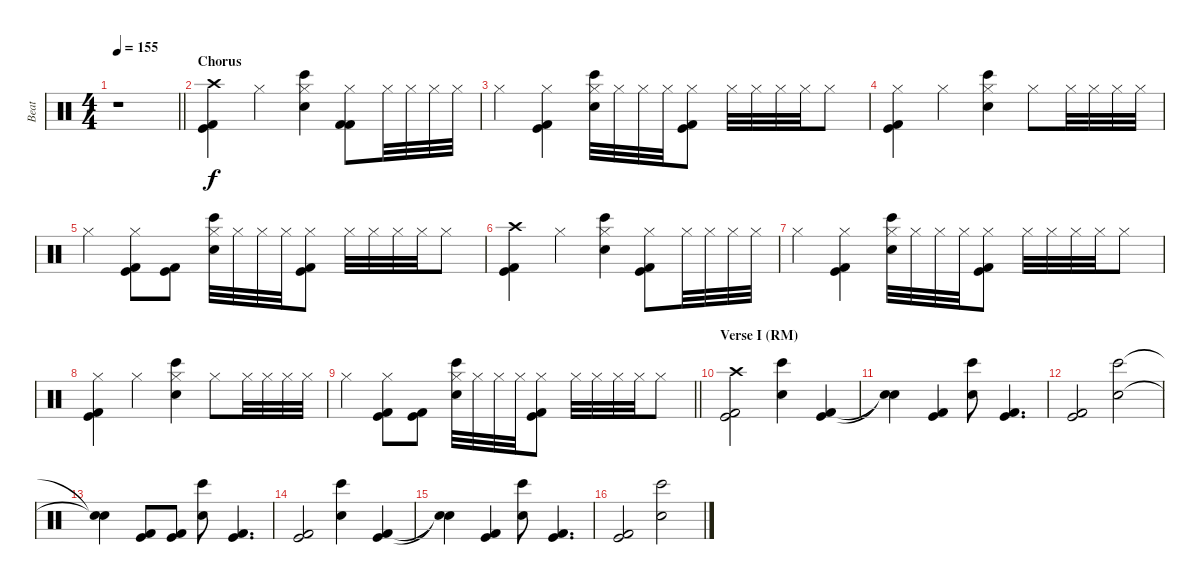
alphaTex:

\track ("Beat" "Beat") {instrument percussion}
\staff {score}
\articulation defaults
\ts (4 4)
\tempo 155
\clef neutral
\barLineRight lightlight
\ks c
r.1{dy f} |
\section ("" "Chorus")
("Crash high (hit)" "Kick (hit)" "Kick (hit) 2").4 "Hi-Hat (closed)".4 ("Hi-Hat (closed)" "Hand Clap (hit)" "Bongo High (hit)").4 ("Hi-Hat (closed)" "Kick (hit) 2" "Kick (hit) 2").8 "Hi-Hat (closed)".32 "Hi-Hat (closed)".32 "Hi-Hat (closed)".32 "Hi-Hat (closed)".32 |
"Hi-Hat (closed)".4 ("Hi-Hat (closed)" "Kick (hit)" "Kick (hit) 2").4 ("Hi-Hat (closed)" "Hand Clap (hit)" "Bongo High (hit)").32 "Hi-Hat (closed)".32 "Hi-Hat (closed)".32 "Hi-Hat (closed)".32 ("Hi-Hat (closed)" "Kick (hit)" "Kick (hit) 2").8 "Hi-Hat (closed)".32 "Hi-Hat (closed)".32 "Hi-Hat (closed)".32 "Hi-Hat (closed)".32 "Hi-Hat (closed)".8 |
("Hi-Hat (closed)" "Kick (hit)" "Kick (hit) 2").4 "Hi-Hat (closed)".4 ("Hi-Hat (closed)" "Hand Clap (hit)" "Bongo High (hit)").4 "Hi-Hat (closed)".8 "Hi-Hat (closed)".32 "Hi-Hat (closed)".32 "Hi-Hat (closed)".32 "Hi-Hat (closed)".32 |
"Hi-Hat (closed)".4 ("Hi-Hat (closed)" "Kick (hit)" "Kick (hit) 2").8 ("Kick (hit)" "Kick (hit) 2").8 ("Hi-Hat (closed)" "Hand Clap (hit)" "Bongo High (hit)").32 "Hi-Hat (closed)".32 "Hi-Hat (closed)".32 "Hi-Hat (closed)".32 ("Hi-Hat (closed)" "Kick (hit)" "Kick (hit) 2").8 "Hi-Hat (closed)".32 "Hi-Hat (closed)".32 "Hi-Hat (closed)".32 "Hi-Hat (closed)".32 "Hi-Hat (closed)".8 |
("Crash high (hit)" "Kick (hit)" "Kick (hit) 2").4 "Hi-Hat (closed)".4 ("Hi-Hat (closed)" "Hand Clap (hit)" "Bongo High (hit)").4 ("Hi-Hat (closed)" "Kick (hit)" "Kick (hit) 2").8 "Hi-Hat (closed)".32 "Hi-Hat (closed)".32 "Hi-Hat (closed)".32 "Hi-Hat (closed)".32 |
"Hi-Hat (closed)".4 ("Hi-Hat (closed)" "Kick (hit)" "Kick (hit) 2").4 ("Hi-Hat (closed)" "Hand Clap (hit)" "Bongo High (hit)").32 "Hi-Hat (closed)".32 "Hi-Hat (closed)".32 "Hi-Hat (closed)".32 ("Hi-Hat (closed)" "Kick (hit)" "Kick (hit) 2").8 "Hi-Hat (closed)".32 "Hi-Hat (closed)".32 "Hi-Hat (closed)".32 "Hi-Hat (closed)".32 "Hi-Hat (closed)".8 |
("Hi-Hat (closed)" "Kick (hit)" "Kick (hit) 2").4 "Hi-Hat (closed)".4 ("Hi-Hat (closed)" "Hand Clap (hit)" "Bongo High (hit)").4 "Hi-Hat (closed)".8 "Hi-Hat (closed)".32 "Hi-Hat (closed)".32 "Hi-Hat (closed)".32 "Hi-Hat (closed)".32 |
\barLineRight lightlight "Hi-Hat (closed)".4
("Hi-Hat (closed)" "Kick (hit)" "Kick (hit) 2").8 ("Kick (hit)" "Kick (hit) 2").8 ("Hi-Hat (closed)" "Hand Clap (hit)" "Bongo High (hit)").32 "Hi-Hat (closed)".32 "Hi-Hat (closed)".32 "Hi-Hat (closed)".32 ("Hi-Hat (closed)" "Kick (hit)" "Kick (hit) 2").8 "Hi-Hat (closed)".32 "Hi-Hat (closed)".32 "Hi-Hat (closed)".32 "Hi-Hat (closed)".32 "Hi-Hat (closed)".8 |
\section ("" "Verse I (RM)")
("Crash high (hit)" "Kick (hit)" "Kick (hit) 2").2 ("Hand Clap (hit)" "Bongo High (hit)").4 ("Kick (hit)" "Kick (hit) 2").4 |
("Snare (hit)"{t} "Snare (hit)"{t}).4 ("Kick (hit)" "Kick (hit) 2").4 ("Hand Clap (hit)" "Bongo High (hit)").8 ("Kick (hit)" "Kick (hit) 2").4{d} |
("Kick (hit)" "Kick (hit) 2").2 ("Hand Clap (hit)" "Bongo High (hit)").2 |
("Snare (hit)"{t} "Snare (hit)"{t}).4 ("Kick (hit)" "Kick (hit) 2").8 ("Kick (hit)" "Kick (hit) 2").8 ("Hand Clap (hit)" "Bongo High (hit)").8 ("Kick (hit)" "Kick (hit) 2").4{d} |
("Kick (hit)" "Kick (hit) 2").2 ("Hand Clap (hit)" "Bongo High (hit)").4 ("Kick (hit)" "Kick (hit) 2").4 |
("Snare (hit)"{t} "Snare (hit)"{t}).4 ("Kick (hit)" "Kick (hit) 2").4 ("Hand Clap (hit)" "Bongo High (hit)").8 ("Kick (hit)" "Kick (hit) 2").4{d} |
("Kick (hit)" "Kick (hit) 2").2 ("Hand Clap (hit)" "Bongo High (hit)").2
